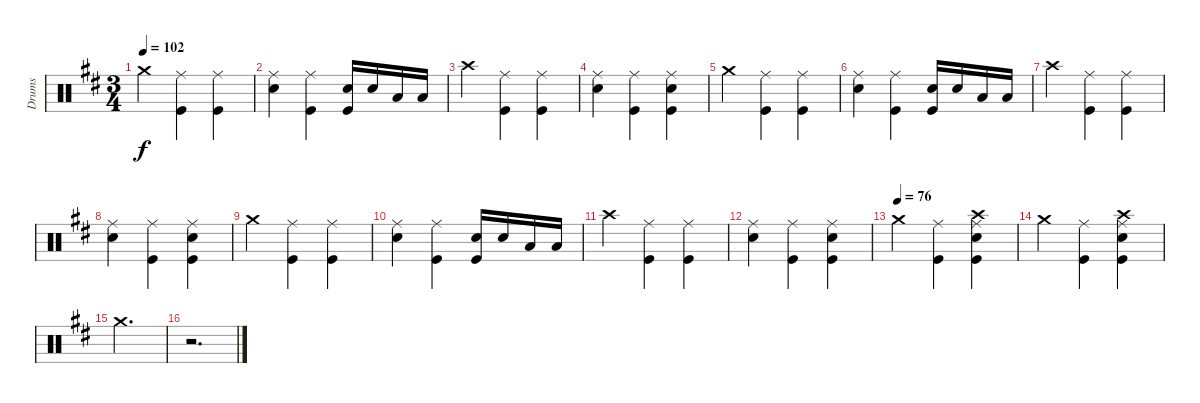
\track ("Drums" "Drums") {instrument percussion}
\staff {score}
\articulation defaults
\ts (3 4)
\tempo 102
\clef neutral
\ks d "Crash medium (hit)".4{dy f}
("Ride (middle)" "Kick (hit)").4 ("Ride (middle)" "Kick (hit)").4 |
("Ride (middle)" "Snare (hit) 2").4 ("Ride (middle)" "Kick (hit)").4 ("Snare (hit) 2" "Kick (hit)").16 "Snare (hit) 2".16 "Low Tom (hit)".16 "Low Tom (hit)".16 |
"Crash high (hit)".4 ("Ride (middle)" "Kick (hit)").4 ("Ride (middle)" "Kick (hit)").4 |
("Ride (middle)" "Snare (hit) 2").4 ("Ride (middle)" "Kick (hit)").4 ("Ride (middle)" "Snare (hit) 2" "Kick (hit)").4 |
"Crash medium (hit)".4 ("Ride (middle)" "Kick (hit)").4 ("Ride (middle)" "Kick (hit)").4 |
("Ride (middle)" "Snare (hit) 2").4 ("Ride (middle)" "Kick (hit)").4 ("Snare (hit) 2" "Kick (hit)").16 "Snare (hit) 2".16 "Low Tom (hit)".16 "Low Tom (hit)".16 |
"Crash high (hit)".4 ("Ride (middle)" "Kick (hit)").4 ("Ride (middle)" "Kick (hit)").4 |
("Ride (middle)" "Snare (hit) 2").4 ("Ride (middle)" "Kick (hit)").4 ("Ride (middle)" "Snare (hit) 2" "Kick (hit)").4 |
"Crash medium (hit)".4 ("Ride (middle)" "Kick (hit)").4 ("Ride (middle)" "Kick (hit)").4 |
("Ride (middle)" "Snare (hit) 2").4 ("Ride (middle)" "Kick (hit)").4 ("Snare (hit) 2" "Kick (hit)").16 "Snare (hit) 2".16 "Low Tom (hit)".16 "Low Tom (hit)".16 |
"Crash high (hit)".4 ("Ride (middle)" "Kick (hit)").4 ("Ride (middle)" "Kick (hit)").4 |
("Ride (middle)" "Snare (hit) 2").4 ("Ride (middle)" "Kick (hit)").4 ("Ride (middle)" "Snare (hit) 2" "Kick (hit)").4 |
\tempo (76)
"Crash medium (hit)".4 ("Ride (middle)" "Kick (hit)").4 ("Crash high (hit)" "Ride (middle)" "Snare (hit) 2" "Kick (hit)").4 |
"Crash medium (hit)".4 ("Ride (middle)" "Kick (hit)").4 ("Crash high (hit)" "Ride (middle)" "Snare (hit) 2" "Kick (hit)").4 |
"Crash medium (hit)".2{d} |
r.2{d}
